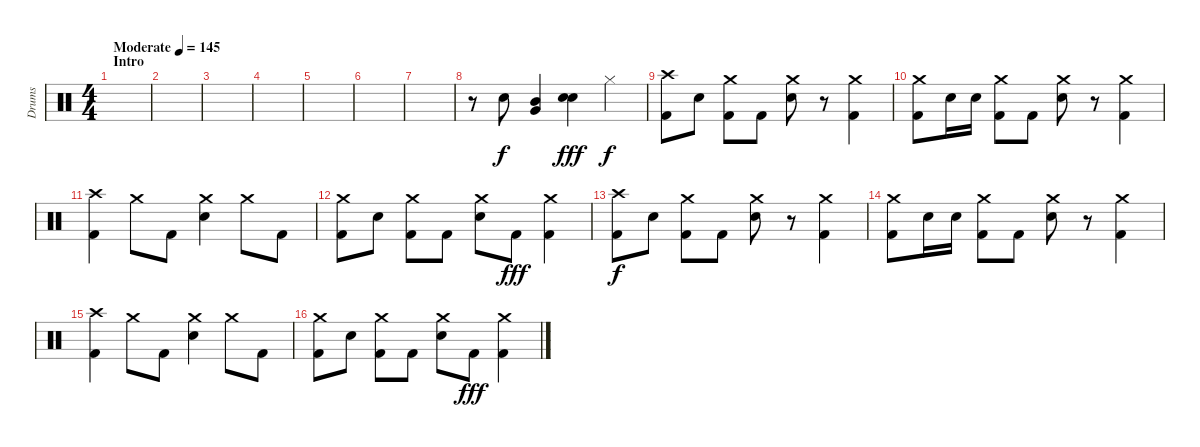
\track ("Drums" "Drums") {instrument percussion}
\staff {score}
\articulation defaults
\ts (4 4)
\section ("" "Intro")
\tempo (145 "Moderate")
\clef neutral
\ks c
|
|
|
|
|
|
|
r.8 "Electric Snare (hit)".8 ("Mid Tom (hit)" "Very Low Tom (hit)").4 ("Electric Snare (hit)" "Electric Snare (hit)").4{dy fff} "Hi-Hat (closed)".4{dy f} |
("Crash high (hit)" "Kick (hit) 2").8 "Electric Snare (hit)".8 ("Crash medium (hit)" "Kick (hit) 2").8 "Kick (hit) 2".8 ("Crash medium (hit)" "Electric Snare (hit)").8 r.8 ("Crash medium (hit)" "Kick (hit) 2").4 |
("Crash medium (hit)" "Kick (hit) 2").8 "Electric Snare (hit)".16 "Electric Snare (hit)".16 ("Crash medium (hit)" "Kick (hit) 2").8 "Kick (hit) 2".8 ("Crash medium (hit)" "Electric Snare (hit)").8 r.8 ("Crash medium (hit)" "Kick (hit) 2").4 |
("Crash high (hit)" "Kick (hit) 2").4 "Crash medium (hit)".8 "Kick (hit) 2".8 ("Crash medium (hit)" "Electric Snare (hit)").4 "Crash medium (hit)".8 "Kick (hit) 2".8 |
("Crash medium (hit)" "Kick (hit) 2").8 "Electric Snare (hit)".8 ("Crash medium (hit)" "Kick (hit) 2").8 "Kick (hit) 2".8 ("Crash medium (hit)" "Electric Snare (hit)").8 "Kick (hit) 2".8{dy fff} ("Crash medium (hit)" "Kick (hit) 2").4 |
("Crash high (hit)" "Kick (hit) 2").8{dy f} "Electric Snare (hit)".8 ("Crash medium (hit)" "Kick (hit) 2").8 "Kick (hit) 2".8 ("Crash medium (hit)" "Electric Snare (hit)").8 r.8 ("Crash medium (hit)" "Kick (hit) 2").4 |
("Crash medium (hit)" "Kick (hit) 2").8 "Electric Snare (hit)".16 "Electric Snare (hit)".16 ("Crash medium (hit)" "Kick (hit) 2").8 "Kick (hit) 2".8 ("Crash medium (hit)" "Electric Snare (hit)").8 r.8 ("Crash medium (hit)" "Kick (hit) 2").4 |
("Crash high (hit)" "Kick (hit) 2").4 "Crash medium (hit)".8 "Kick (hit) 2".8 ("Crash medium (hit)" "Electric Snare (hit)").4 "Crash medium (hit)".8 "Kick (hit) 2".8 |
("Crash medium (hit)" "Kick (hit) 2").8 "Electric Snare (hit)".8 ("Crash medium (hit)" "Kick (hit) 2").8 "Kick (hit) 2".8 ("Crash medium (hit)" "Electric Snare (hit)").8 "Kick (hit) 2".8{dy fff} ("Crash medium (hit)" "Kick (hit) 2").4
